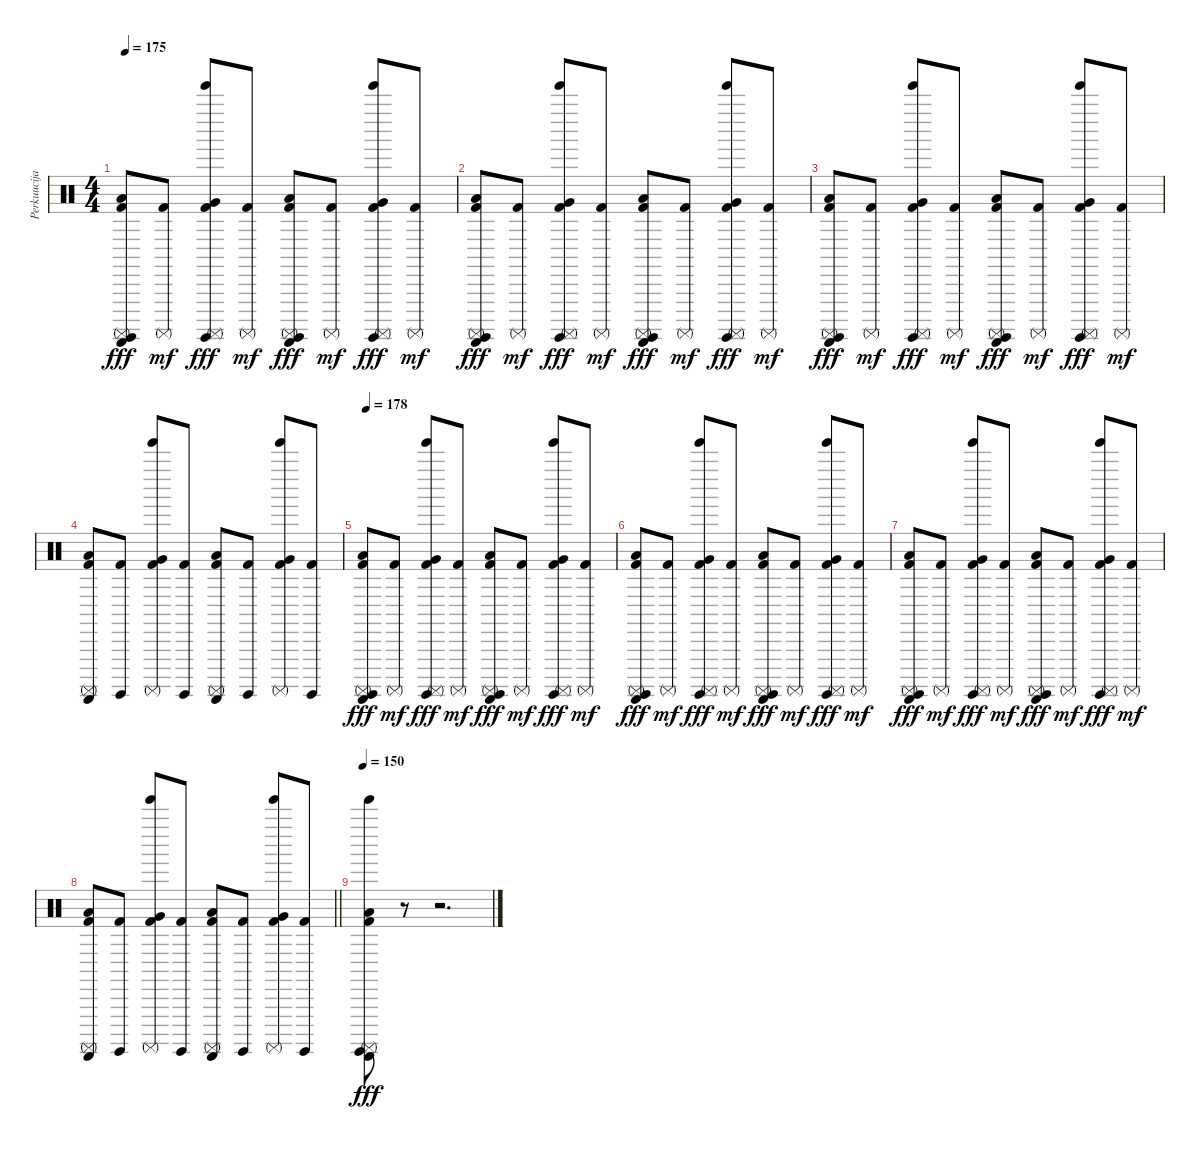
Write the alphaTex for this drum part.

\track ("Perkuucijas" "Perkuucija") {instrument percussion}
\staff {score}
\articulation defaults
\ts (4 4)
\tempo 175
\clef neutral
\ks c
("Kick (hit) 2" "Guiro (scrap-return)" "Low Floor Tom (hit)" "Surdo (hit)" "Surdo (mute)").8{dy fff} ("Kick (hit) 2" "Surdo (mute)").8{dy mf} ("Kick (hit) 2" "Tinkle Bell (hit)" "Very Low Tom (hit)" "Surdo (hit)" "Surdo (mute)").8{dy fff} ("Kick (hit) 2" "Surdo (mute)").8{dy mf} ("Kick (hit) 2" "Guiro (scrap-return)" "Low Tom (hit)" "Surdo (hit)" "Surdo (mute)").8{dy fff} ("Kick (hit) 2" "Surdo (mute)").8{dy mf} ("Kick (hit) 2" "Tinkle Bell (hit)" "Very Low Tom (hit)" "Surdo (hit)" "Surdo (mute)").8{dy fff} ("Kick (hit) 2" "Surdo (mute)").8{dy mf} |
("Kick (hit) 2" "Guiro (scrap-return)" "Low Floor Tom (hit)" "Surdo (hit)" "Surdo (mute)").8{dy fff} ("Kick (hit) 2" "Surdo (mute)").8{dy mf} ("Kick (hit) 2" "Tinkle Bell (hit)" "Very Low Tom (hit)" "Surdo (hit)" "Surdo (mute)").8{dy fff} ("Kick (hit) 2" "Surdo (mute)").8{dy mf} ("Kick (hit) 2" "Guiro (scrap-return)" "Low Tom (hit)" "Surdo (hit)" "Surdo (mute)").8{dy fff} ("Kick (hit) 2" "Surdo (mute)").8{dy mf} ("Kick (hit) 2" "Tinkle Bell (hit)" "Very Low Tom (hit)" "Surdo (hit)" "Surdo (mute)").8{dy fff} ("Kick (hit) 2" "Surdo (mute)").8{dy mf} |
("Kick (hit) 2" "Guiro (scrap-return)" "Low Floor Tom (hit)" "Surdo (hit)" "Surdo (mute)").8{dy fff} ("Kick (hit) 2" "Surdo (mute)").8{dy mf} ("Kick (hit) 2" "Tinkle Bell (hit)" "Very Low Tom (hit)" "Surdo (hit)" "Surdo (mute)").8{dy fff} ("Kick (hit) 2" "Surdo (mute)").8{dy mf} ("Kick (hit) 2" "Guiro (scrap-return)" "Low Tom (hit)" "Surdo (hit)" "Surdo (mute)").8{dy fff} ("Kick (hit) 2" "Surdo (mute)").8{dy mf} ("Kick (hit) 2" "Tinkle Bell (hit)" "Very Low Tom (hit)" "Surdo (hit)" "Surdo (mute)").8{dy fff} ("Kick (hit) 2" "Surdo (mute)").8{dy mf} |
("Kick (hit) 2" "Guiro (scrap-return)" "Low Floor Tom (hit)" "Surdo (mute)").8 ("Kick (hit) 2" "Surdo (hit)").8 ("Kick (hit) 2" "Tinkle Bell (hit)" "Very Low Tom (hit)" "Surdo (mute)").8 ("Kick (hit) 2" "Surdo (hit)").8 ("Kick (hit) 2" "Guiro (scrap-return)" "Low Tom (hit)" "Surdo (mute)").8 ("Kick (hit) 2" "Surdo (hit)").8 ("Kick (hit) 2" "Tinkle Bell (hit)" "Very Low Tom (hit)" "Surdo (mute)").8 ("Kick (hit) 2" "Surdo (hit)").8 |
\tempo 178
("Kick (hit) 2" "Guiro (scrap-return)" "Low Floor Tom (hit)" "Surdo (hit)" "Surdo (mute)").8{dy fff} ("Kick (hit) 2" "Surdo (mute)").8{dy mf} ("Kick (hit) 2" "Tinkle Bell (hit)" "Very Low Tom (hit)" "Surdo (hit)" "Surdo (mute)").8{dy fff} ("Kick (hit) 2" "Surdo (mute)").8{dy mf} ("Kick (hit) 2" "Guiro (scrap-return)" "Low Tom (hit)" "Surdo (hit)" "Surdo (mute)").8{dy fff} ("Kick (hit) 2" "Surdo (mute)").8{dy mf} ("Kick (hit) 2" "Tinkle Bell (hit)" "Very Low Tom (hit)" "Surdo (hit)" "Surdo (mute)").8{dy fff} ("Kick (hit) 2" "Surdo (mute)").8{dy mf} |
("Kick (hit) 2" "Guiro (scrap-return)" "Low Floor Tom (hit)" "Surdo (hit)" "Surdo (mute)").8{dy fff} ("Kick (hit) 2" "Surdo (mute)").8{dy mf} ("Kick (hit) 2" "Tinkle Bell (hit)" "Very Low Tom (hit)" "Surdo (hit)" "Surdo (mute)").8{dy fff} ("Kick (hit) 2" "Surdo (mute)").8{dy mf} ("Kick (hit) 2" "Guiro (scrap-return)" "Low Tom (hit)" "Surdo (hit)" "Surdo (mute)").8{dy fff} ("Kick (hit) 2" "Surdo (mute)").8{dy mf} ("Kick (hit) 2" "Tinkle Bell (hit)" "Very Low Tom (hit)" "Surdo (hit)" "Surdo (mute)").8{dy fff} ("Kick (hit) 2" "Surdo (mute)").8{dy mf} |
("Kick (hit) 2" "Guiro (scrap-return)" "Low Floor Tom (hit)" "Surdo (hit)" "Surdo (mute)").8{dy fff} ("Kick (hit) 2" "Surdo (mute)").8{dy mf} ("Kick (hit) 2" "Tinkle Bell (hit)" "Very Low Tom (hit)" "Surdo (hit)" "Surdo (mute)").8{dy fff} ("Kick (hit) 2" "Surdo (mute)").8{dy mf} ("Kick (hit) 2" "Guiro (scrap-return)" "Low Tom (hit)" "Surdo (hit)" "Surdo (mute)").8{dy fff} ("Kick (hit) 2" "Surdo (mute)").8{dy mf} ("Kick (hit) 2" "Tinkle Bell (hit)" "Very Low Tom (hit)" "Surdo (hit)" "Surdo (mute)").8{dy fff} ("Kick (hit) 2" "Surdo (mute)").8{dy mf} |
\barLineRight lightlight
("Kick (hit) 2" "Guiro (scrap-return)" "Low Floor Tom (hit)" "Surdo (mute)").8 ("Kick (hit) 2" "Surdo (hit)").8 ("Kick (hit) 2" "Tinkle Bell (hit)" "Very Low Tom (hit)" "Surdo (mute)").8 ("Kick (hit) 2" "Surdo (hit)").8 ("Kick (hit) 2" "Guiro (scrap-return)" "Low Tom (hit)" "Surdo (mute)").8 ("Kick (hit) 2" "Surdo (hit)").8 ("Kick (hit) 2" "Tinkle Bell (hit)" "Very Low Tom (hit)" "Surdo (mute)").8 ("Kick (hit) 2" "Surdo (hit)").8 |
\tempo 150
("Kick (hit) 2" "Guiro (scrap-return)" "Low Floor Tom (hit)" "Surdo (hit)" "Surdo (mute)" "Tinkle Bell (hit)").8{dy fff} r.8 r.2{d}
